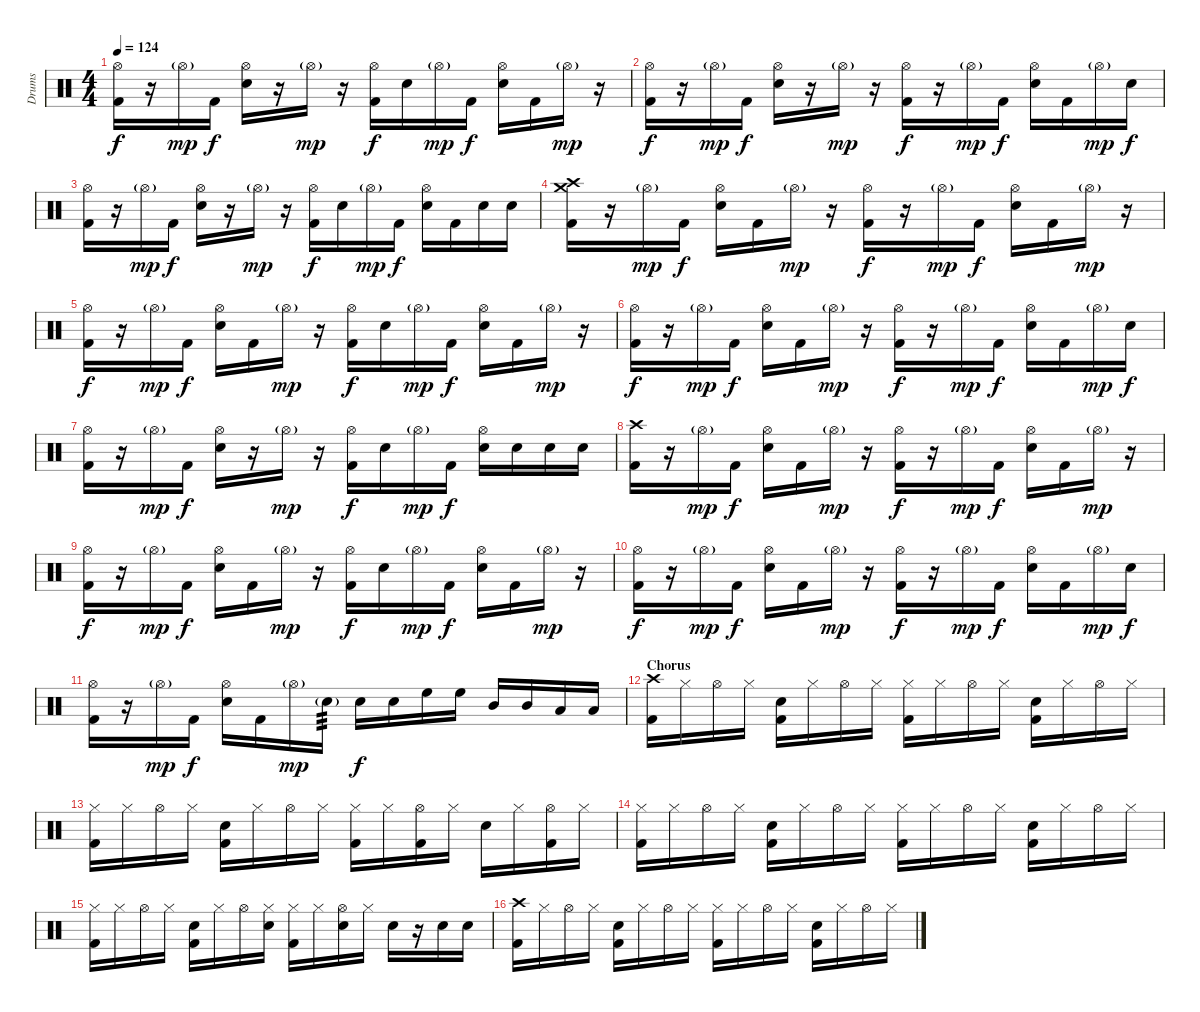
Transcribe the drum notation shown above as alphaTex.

\track ("Drums" "Drums") {instrument percussion}
\staff {score}
\articulation defaults
\ts (4 4)
\tempo 124
\clef neutral
\ks c
("Hi-Hat (open)" "Kick (hit) 2").16{dy f} r.16 "Hi-Hat (open)"{g}.16{dy mp} "Kick (hit) 2".16{dy f} ("Hi-Hat (open)" "Electric Snare (hit)").16 r.16 "Hi-Hat (open)"{g}.16{dy mp} r.16 ("Hi-Hat (open)" "Kick (hit) 2").16{dy f} "Electric Snare (hit)".16 "Hi-Hat (open)"{g}.16{dy mp} "Kick (hit) 2".16{dy f} ("Hi-Hat (open)" "Electric Snare (hit)").16 "Kick (hit) 2".16 "Hi-Hat (open)"{g}.16{dy mp} r.16 |
("Hi-Hat (open)" "Kick (hit) 2").16{dy f} r.16 "Hi-Hat (open)"{g}.16{dy mp} "Kick (hit) 2".16{dy f} ("Hi-Hat (open)" "Electric Snare (hit)").16 r.16 "Hi-Hat (open)"{g}.16{dy mp} r.16 ("Hi-Hat (open)" "Kick (hit) 2").16{dy f} r.16 "Hi-Hat (open)"{g}.16{dy mp} "Kick (hit) 2".16{dy f} ("Hi-Hat (open)" "Electric Snare (hit)").16 "Kick (hit) 2".16 "Hi-Hat (open)"{g}.16{dy mp} "Electric Snare (hit)".16{dy f} |
("Hi-Hat (open)" "Kick (hit) 2").16 r.16 "Hi-Hat (open)"{g}.16{dy mp} "Kick (hit) 2".16{dy f} ("Hi-Hat (open)" "Electric Snare (hit)").16 r.16 "Hi-Hat (open)"{g}.16{dy mp} r.16 ("Hi-Hat (open)" "Kick (hit) 2").16{dy f} "Electric Snare (hit)".16 "Hi-Hat (open)"{g}.16{dy mp} "Kick (hit) 2".16{dy f} ("Hi-Hat (open)" "Electric Snare (hit)").16 "Kick (hit) 2".16 "Electric Snare (hit)".16 "Electric Snare (hit)".16 |
("Crash high (hit)" "Crash medium (hit)" "Kick (hit) 2").16 r.16 "Hi-Hat (open)"{g}.16{dy mp} "Kick (hit) 2".16{dy f} ("Hi-Hat (open)" "Electric Snare (hit)").16 "Kick (hit) 2".16 "Hi-Hat (open)"{g}.16{dy mp} r.16 ("Hi-Hat (open)" "Kick (hit) 2").16{dy f} r.16 "Hi-Hat (open)"{g}.16{dy mp} "Kick (hit) 2".16{dy f} ("Hi-Hat (open)" "Electric Snare (hit)").16 "Kick (hit) 2".16 "Hi-Hat (open)"{g}.16{dy mp} r.16 |
("Hi-Hat (open)" "Kick (hit) 2").16{dy f} r.16 "Hi-Hat (open)"{g}.16{dy mp} "Kick (hit) 2".16{dy f} ("Hi-Hat (open)" "Electric Snare (hit)").16 "Kick (hit) 2".16 "Hi-Hat (open)"{g}.16{dy mp} r.16 ("Hi-Hat (open)" "Kick (hit) 2").16{dy f} "Electric Snare (hit)".16 "Hi-Hat (open)"{g}.16{dy mp} "Kick (hit) 2".16{dy f} ("Hi-Hat (open)" "Electric Snare (hit)").16 "Kick (hit) 2".16 "Hi-Hat (open)"{g}.16{dy mp} r.16 |
("Hi-Hat (open)" "Kick (hit) 2").16{dy f} r.16 "Hi-Hat (open)"{g}.16{dy mp} "Kick (hit) 2".16{dy f} ("Hi-Hat (open)" "Electric Snare (hit)").16 "Kick (hit) 2".16 "Hi-Hat (open)"{g}.16{dy mp} r.16 ("Hi-Hat (open)" "Kick (hit) 2").16{dy f} r.16 "Hi-Hat (open)"{g}.16{dy mp} "Kick (hit) 2".16{dy f} ("Hi-Hat (open)" "Electric Snare (hit)").16 "Kick (hit) 2".16 "Hi-Hat (open)"{g}.16{dy mp} "Electric Snare (hit)".16{dy f} |
("Hi-Hat (open)" "Kick (hit) 2").16 r.16 "Hi-Hat (open)"{g}.16{dy mp} "Kick (hit) 2".16{dy f} ("Hi-Hat (open)" "Electric Snare (hit)").16 r.16 "Hi-Hat (open)"{g}.16{dy mp} r.16 ("Hi-Hat (open)" "Kick (hit) 2").16{dy f} "Electric Snare (hit)".16 "Hi-Hat (open)"{g}.16{dy mp} "Kick (hit) 2".16{dy f} ("Hi-Hat (open)" "Electric Snare (hit)").16 "Snare (hit)".16 "Electric Snare (hit)".16 "Electric Snare (hit)".16 |
("Crash high (hit)" "Kick (hit) 2").16 r.16 "Hi-Hat (open)"{g}.16{dy mp} "Kick (hit) 2".16{dy f} ("Hi-Hat (open)" "Electric Snare (hit)").16 "Kick (hit) 2".16 "Hi-Hat (open)"{g}.16{dy mp} r.16 ("Hi-Hat (open)" "Kick (hit) 2").16{dy f} r.16 "Hi-Hat (open)"{g}.16{dy mp} "Kick (hit) 2".16{dy f} ("Hi-Hat (open)" "Electric Snare (hit)").16 "Kick (hit) 2".16 "Hi-Hat (open)"{g}.16{dy mp} r.16 |
("Hi-Hat (open)" "Kick (hit) 2").16{dy f} r.16 "Hi-Hat (open)"{g}.16{dy mp} "Kick (hit) 2".16{dy f} ("Hi-Hat (open)" "Electric Snare (hit)").16 "Kick (hit) 2".16 "Hi-Hat (open)"{g}.16{dy mp} r.16 ("Hi-Hat (open)" "Kick (hit) 2").16{dy f} "Electric Snare (hit)".16 "Hi-Hat (open)"{g}.16{dy mp} "Kick (hit) 2".16{dy f} ("Hi-Hat (open)" "Electric Snare (hit)").16 "Kick (hit) 2".16 "Hi-Hat (open)"{g}.16{dy mp} r.16 |
("Hi-Hat (open)" "Kick (hit) 2").16{dy f} r.16 "Hi-Hat (open)"{g}.16{dy mp} "Kick (hit) 2".16{dy f} ("Hi-Hat (open)" "Electric Snare (hit)").16 "Kick (hit) 2".16 "Hi-Hat (open)"{g}.16{dy mp} r.16 ("Hi-Hat (open)" "Kick (hit) 2").16{dy f} r.16 "Hi-Hat (open)"{g}.16{dy mp} "Kick (hit) 2".16{dy f} ("Hi-Hat (open)" "Electric Snare (hit)").16 "Kick (hit) 2".16 "Hi-Hat (open)"{g}.16{dy mp} "Electric Snare (hit)".16{dy f} |
("Hi-Hat (open)" "Kick (hit) 2").16 r.16 "Hi-Hat (open)"{g}.16{dy mp} "Kick (hit) 2".16{dy f} ("Hi-Hat (open)" "Electric Snare (hit)").16 "Kick (hit) 2".16 "Hi-Hat (open)"{g}.16{dy mp} "Electric Snare (hit)"{g}.16{tp 3} "Electric Snare (hit)".16{dy f} "Electric Snare (hit)".16 "High Floor Tom (hit)".16 "High Floor Tom (hit)".16 "Mid Tom (hit)".16 "Mid Tom (hit)".16 "Low Tom (hit)".16 "Low Tom (hit)".16 |
\section ("" "Chorus")
("Crash high (hit)" "Kick (hit) 2").16 "Hi-Hat (closed)".16 "Hi-Hat (open)".16 "Hi-Hat (closed)".16 ("Electric Snare (hit)" "Kick (hit) 2").16 "Hi-Hat (closed)".16 "Hi-Hat (open)".16 "Hi-Hat (closed)".16 ("Hi-Hat (closed)" "Kick (hit) 2").16 "Hi-Hat (closed)".16 "Hi-Hat (open)".16 "Hi-Hat (closed)".16 ("Electric Snare (hit)" "Kick (hit) 2").16 "Hi-Hat (closed)".16 "Hi-Hat (open)".16 "Hi-Hat (closed)".16 |
("Hi-Hat (closed)" "Kick (hit) 2").16 "Hi-Hat (closed)".16 "Hi-Hat (open)".16 "Hi-Hat (closed)".16 ("Electric Snare (hit)" "Kick (hit) 2").16 "Hi-Hat (closed)".16 "Hi-Hat (open)".16 "Hi-Hat (closed)".16 ("Hi-Hat (closed)" "Kick (hit) 2").16 "Hi-Hat (closed)".16 ("Hi-Hat (open)" "Kick (hit) 2").16 "Hi-Hat (closed)".16 "Electric Snare (hit)".16 "Hi-Hat (closed)".16 ("Hi-Hat (open)" "Kick (hit) 2").16 "Hi-Hat (closed)".16 |
("Hi-Hat (closed)" "Kick (hit) 2").16 "Hi-Hat (closed)".16 "Hi-Hat (open)".16 "Hi-Hat (closed)".16 ("Electric Snare (hit)" "Kick (hit) 2").16 "Hi-Hat (closed)".16 "Hi-Hat (open)".16 "Hi-Hat (closed)".16 ("Hi-Hat (closed)" "Kick (hit) 2").16 "Hi-Hat (closed)".16 "Hi-Hat (open)".16 "Hi-Hat (closed)".16 ("Electric Snare (hit)" "Kick (hit) 2").16 "Hi-Hat (closed)".16 "Hi-Hat (open)".16 "Hi-Hat (closed)".16 |
("Hi-Hat (closed)" "Kick (hit) 2").16 "Hi-Hat (closed)".16 "Hi-Hat (open)".16 "Hi-Hat (closed)".16 ("Electric Snare (hit)" "Kick (hit) 2").16 "Hi-Hat (closed)".16 "Hi-Hat (open)".16 ("Hi-Hat (closed)" "Electric Snare (hit)").16 ("Hi-Hat (closed)" "Kick (hit) 2").16 "Hi-Hat (closed)".16 ("Hi-Hat (open)" "Electric Snare (hit)").16 "Hi-Hat (closed)".16 "Electric Snare (hit)".16 r.16 "Electric Snare (hit)".16 "Electric Snare (hit)".16 |
("Crash high (hit)" "Kick (hit) 2").16 "Hi-Hat (closed)".16 "Hi-Hat (open)".16 "Hi-Hat (closed)".16 ("Electric Snare (hit)" "Kick (hit) 2").16 "Hi-Hat (closed)".16 "Hi-Hat (open)".16 "Hi-Hat (closed)".16 ("Hi-Hat (closed)" "Kick (hit) 2").16 "Hi-Hat (closed)".16 "Hi-Hat (open)".16 "Hi-Hat (closed)".16 ("Electric Snare (hit)" "Kick (hit) 2").16 "Hi-Hat (closed)".16 "Hi-Hat (open)".16 "Hi-Hat (closed)".16
